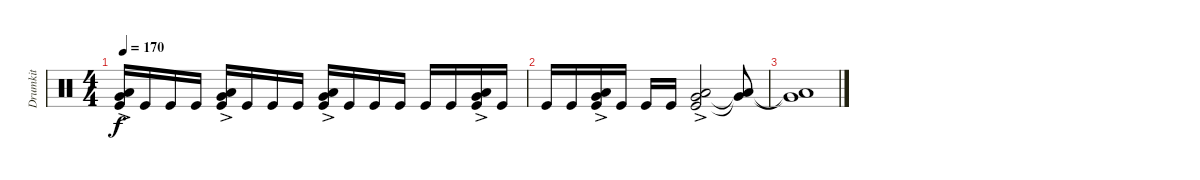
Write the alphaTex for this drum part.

\track ("Drumkit" "Drumkit") {instrument percussion}
\staff {score}
\articulation defaults
\ts (4 4)
\tempo 170
\clef neutral
\ks c
("Kick (hit)" "Very Low Tom (hit)"{ac} "Low Tom (hit)"{ac}).16{dy f} "Kick (hit)".16 "Kick (hit)".16 "Kick (hit)".16 ("Kick (hit)" "Low Tom (hit)"{ac} "Very Low Tom (hit)"{ac}).16 "Kick (hit)".16 "Kick (hit)".16 "Kick (hit)".16 ("Kick (hit)" "Very Low Tom (hit)"{ac} "Low Tom (hit)"{ac}).16 "Kick (hit)".16 "Kick (hit)".16 "Kick (hit)".16 "Kick (hit)".16 "Kick (hit)".16 ("Kick (hit)" "Very Low Tom (hit)"{ac} "Low Tom (hit)"{ac}).16 "Kick (hit)".16 |
"Kick (hit)".16 "Kick (hit)".16 ("Kick (hit)" "Very Low Tom (hit)"{ac} "Low Tom (hit)"{ac}).16 "Kick (hit)".16 "Kick (hit)".16 "Kick (hit)".16 ("Kick (hit)" "Very Low Tom (hit)"{ac} "Low Tom (hit)"{ac}).2 ("Very Low Tom (hit)"{t} "Low Tom (hit)"{t}).8 |
("Low Tom (hit)"{t} "Very Low Tom (hit)"{t}).1
